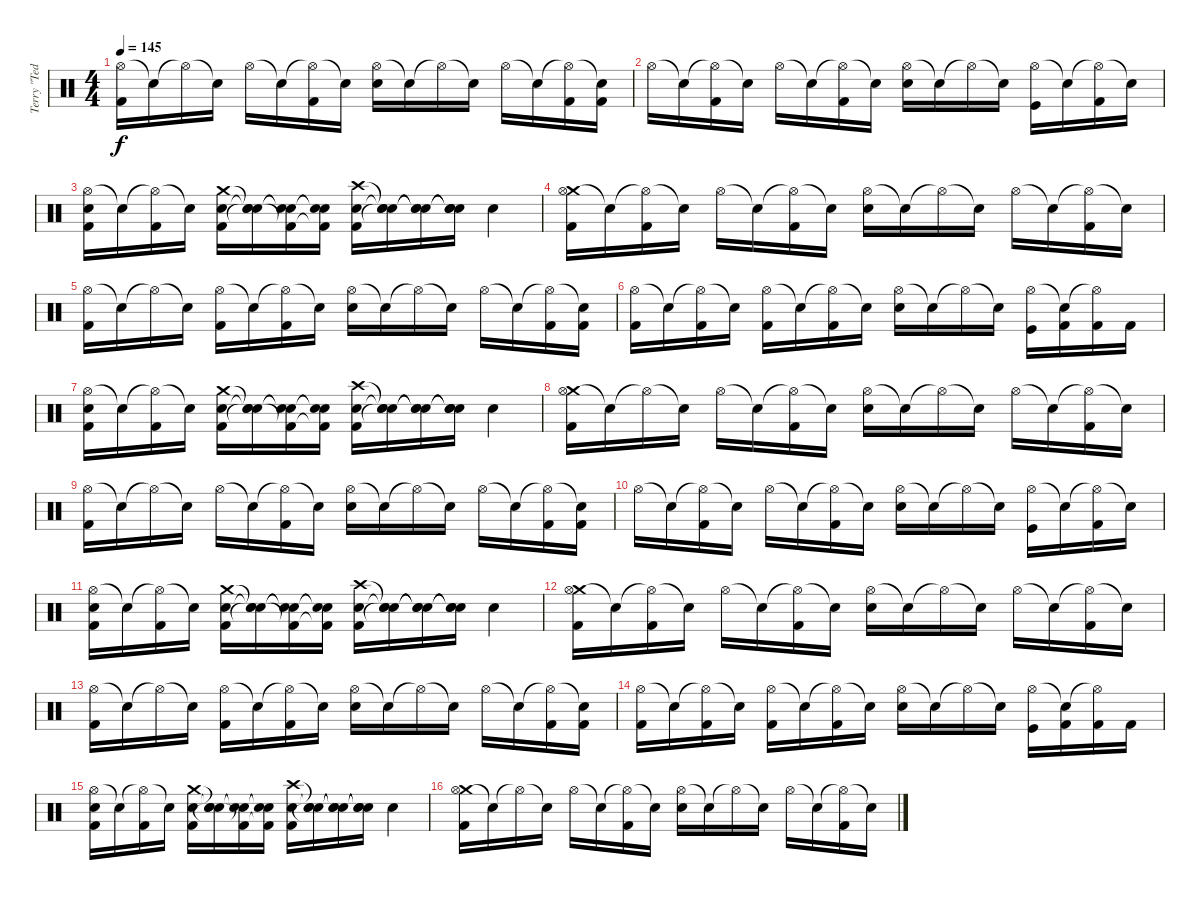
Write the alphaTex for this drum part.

\track ("Terry \"Ted\" Bozzio" "Terry \"Ted") {instrument percussion}
\staff {score}
\articulation defaults
\ts (4 4)
\tempo 145
\clef neutral
\ks c
("Hi-Hat (open)" "Kick (hit) 2").16{dy f beam merge} "Snare (hit)"{t}.16 "Hi-Hat (open)"{t}.16 "Snare (hit)"{t}.16 "Hi-Hat (open)".16 "Snare (hit)"{t}.16{beam merge} ("Hi-Hat (open)"{t} "Kick (hit) 2").16{beam merge} "Snare (hit)"{t}.16 ("Hi-Hat (open)" "Electric Snare (hit)").16 "Snare (hit)"{t}.16 "Hi-Hat (open)"{t}.16 "Snare (hit)"{t}.16 "Hi-Hat (open)".16 "Snare (hit)"{t}.16 ("Hi-Hat (open)"{t} "Kick (hit) 2").16 ("Snare (hit)"{t} "Kick (hit) 2").16 |
"Hi-Hat (open)".16{beam merge} "Snare (hit)"{t}.16 ("Hi-Hat (open)"{t} "Kick (hit) 2").16 "Snare (hit)"{t}.16 "Hi-Hat (open)".16 "Snare (hit)"{t}.16{beam merge} ("Hi-Hat (open)"{t} "Kick (hit) 2").16{beam merge} "Snare (hit)"{t}.16 ("Hi-Hat (open)" "Electric Snare (hit)").16 "Snare (hit)"{t}.16 "Hi-Hat (open)"{t}.16 "Snare (hit)"{t}.16 ("Hi-Hat (open)" "Kick (hit)").16 "Snare (hit)"{t}.16 ("Hi-Hat (open)"{t} "Kick (hit) 2").16{beam merge} "Snare (hit)"{t}.16 |
("Hi-Hat (open)" "Electric Snare (hit)" "Kick (hit) 2").16{beam merge} "Snare (hit)"{t}.16 ("Hi-Hat (open)"{t} "Kick (hit) 2").16 "Snare (hit)"{t}.16 ("Crash medium (hit)" "Electric Snare (hit)" "Kick (hit) 2").16 ("Snare (hit)"{t} "Snare (hit)"{t} "Snare (hit)"{t}).16{beam merge} ("Snare (hit)"{t} "Snare (hit)"{t} "Kick (hit) 2"{t}).16{beam merge} ("Snare (hit)"{t} "Snare (hit)"{t} "Kick (hit) 2"{t}).16 ("Crash high (hit)" "Electric Snare (hit)" "Kick (hit) 2").16 ("Snare (hit)"{t} "Snare (hit)"{t} "Snare (hit)"{t}).16 ("Snare (hit)"{t} "Snare (hit)"{t} "Snare (hit)"{t}).16 ("Snare (hit)"{t} "Snare (hit)"{t} "Snare (hit)"{t}).16 "Electric Snare (hit)".4 |
("Crash medium (hit)" "Hi-Hat (open)" "Kick (hit) 2").16{beam merge} "Snare (hit)"{t}.16 ("Hi-Hat (open)"{t} "Kick (hit) 2").16 "Snare (hit)"{t}.16 "Hi-Hat (open)".16 "Snare (hit)"{t}.16{beam merge} ("Hi-Hat (open)"{t} "Kick (hit) 2").16{beam merge} "Snare (hit)"{t}.16 ("Hi-Hat (open)" "Electric Snare (hit)").16 "Snare (hit)"{t}.16 "Hi-Hat (open)"{t}.16 "Snare (hit)"{t}.16 "Hi-Hat (open)".16 "Snare (hit)"{t}.16 ("Hi-Hat (open)"{t} "Kick (hit) 2").16 "Snare (hit)"{t}.16 |
("Hi-Hat (open)" "Kick (hit) 2").16{beam merge} "Snare (hit)"{t}.16 "Hi-Hat (open)"{t}.16 "Snare (hit)"{t}.16 ("Hi-Hat (open)" "Kick (hit) 2").16 "Snare (hit)"{t}.16{beam merge} ("Hi-Hat (open)"{t} "Kick (hit) 2").16{beam merge} "Snare (hit)"{t}.16 ("Hi-Hat (open)" "Electric Snare (hit)").16 "Snare (hit)"{t}.16 "Hi-Hat (open)"{t}.16 "Snare (hit)"{t}.16 "Hi-Hat (open)".16 "Snare (hit)"{t}.16 ("Hi-Hat (open)"{t} "Kick (hit) 2").16 ("Snare (hit)"{t} "Kick (hit) 2").16 |
("Hi-Hat (open)" "Kick (hit) 2").16{beam merge} "Snare (hit)"{t}.16 ("Hi-Hat (open)"{t} "Kick (hit) 2").16 "Snare (hit)"{t}.16 ("Hi-Hat (open)" "Kick (hit) 2").16 "Snare (hit)"{t}.16{beam merge} ("Hi-Hat (open)"{t} "Kick (hit) 2").16{beam merge} "Snare (hit)"{t}.16 ("Hi-Hat (open)" "Electric Snare (hit)").16 "Snare (hit)"{t}.16 "Hi-Hat (open)"{t}.16 "Snare (hit)"{t}.16 ("Hi-Hat (open)" "Kick (hit)").16 ("Snare (hit)"{t} "Kick (hit) 2").16 ("Hi-Hat (open)"{t} "Kick (hit) 2").16{beam merge} "Kick (hit) 2".16 |
("Hi-Hat (open)" "Electric Snare (hit)" "Kick (hit) 2").16{beam merge} "Snare (hit)"{t}.16 ("Hi-Hat (open)"{t} "Kick (hit) 2").16 "Snare (hit)"{t}.16 ("Crash medium (hit)" "Electric Snare (hit)" "Kick (hit) 2").16 ("Snare (hit)"{t} "Snare (hit)"{t} "Snare (hit)"{t}).16{beam merge} ("Snare (hit)"{t} "Snare (hit)"{t} "Kick (hit) 2"{t}).16{beam merge} ("Snare (hit)"{t} "Snare (hit)"{t} "Kick (hit) 2"{t}).16 ("Crash high (hit)" "Electric Snare (hit)" "Kick (hit) 2").16 ("Snare (hit)"{t} "Snare (hit)"{t} "Snare (hit)"{t}).16 ("Snare (hit)"{t} "Snare (hit)"{t} "Snare (hit)"{t}).16 ("Snare (hit)"{t} "Snare (hit)"{t} "Snare (hit)"{t}).16 "Electric Snare (hit)".4 |
("Crash medium (hit)" "Hi-Hat (open)" "Kick (hit) 2").16{beam merge} "Snare (hit)"{t}.16 "Hi-Hat (open)"{t}.16 "Snare (hit)"{t}.16 "Hi-Hat (open)".16 "Snare (hit)"{t}.16{beam merge} ("Hi-Hat (open)"{t} "Kick (hit) 2").16{beam merge} "Snare (hit)"{t}.16 ("Hi-Hat (open)" "Electric Snare (hit)").16 "Snare (hit)"{t}.16 "Hi-Hat (open)"{t}.16 "Snare (hit)"{t}.16 "Hi-Hat (open)".16 "Snare (hit)"{t}.16 ("Hi-Hat (open)"{t} "Kick (hit) 2").16 "Snare (hit)"{t}.16 |
("Hi-Hat (open)" "Kick (hit) 2").16{beam merge} "Snare (hit)"{t}.16 "Hi-Hat (open)"{t}.16 "Snare (hit)"{t}.16 "Hi-Hat (open)".16 "Snare (hit)"{t}.16{beam merge} ("Hi-Hat (open)"{t} "Kick (hit) 2").16{beam merge} "Snare (hit)"{t}.16 ("Hi-Hat (open)" "Electric Snare (hit)").16 "Snare (hit)"{t}.16 "Hi-Hat (open)"{t}.16 "Snare (hit)"{t}.16 "Hi-Hat (open)".16 "Snare (hit)"{t}.16 ("Hi-Hat (open)"{t} "Kick (hit) 2").16 ("Snare (hit)"{t} "Kick (hit) 2").16 |
"Hi-Hat (open)".16{beam merge} "Snare (hit)"{t}.16 ("Hi-Hat (open)"{t} "Kick (hit) 2").16 "Snare (hit)"{t}.16 "Hi-Hat (open)".16 "Snare (hit)"{t}.16{beam merge} ("Hi-Hat (open)"{t} "Kick (hit) 2").16{beam merge} "Snare (hit)"{t}.16 ("Hi-Hat (open)" "Electric Snare (hit)").16 "Snare (hit)"{t}.16 "Hi-Hat (open)"{t}.16 "Snare (hit)"{t}.16 ("Hi-Hat (open)" "Kick (hit)").16 "Snare (hit)"{t}.16 ("Hi-Hat (open)"{t} "Kick (hit) 2").16{beam merge} "Snare (hit)"{t}.16 |
("Hi-Hat (open)" "Electric Snare (hit)" "Kick (hit) 2").16{beam merge} "Snare (hit)"{t}.16 ("Hi-Hat (open)"{t} "Kick (hit) 2").16 "Snare (hit)"{t}.16 ("Crash medium (hit)" "Electric Snare (hit)" "Kick (hit) 2").16 ("Snare (hit)"{t} "Snare (hit)"{t} "Snare (hit)"{t}).16{beam merge} ("Snare (hit)"{t} "Snare (hit)"{t} "Kick (hit) 2"{t}).16{beam merge} ("Snare (hit)"{t} "Snare (hit)"{t} "Kick (hit) 2"{t}).16 ("Crash high (hit)" "Electric Snare (hit)" "Kick (hit) 2").16 ("Snare (hit)"{t} "Snare (hit)"{t} "Snare (hit)"{t}).16 ("Snare (hit)"{t} "Snare (hit)"{t} "Snare (hit)"{t}).16 ("Snare (hit)"{t} "Snare (hit)"{t} "Snare (hit)"{t}).16 "Electric Snare (hit)".4 |
("Crash medium (hit)" "Hi-Hat (open)" "Kick (hit) 2").16{beam merge} "Snare (hit)"{t}.16 ("Hi-Hat (open)"{t} "Kick (hit) 2").16 "Snare (hit)"{t}.16 "Hi-Hat (open)".16 "Snare (hit)"{t}.16{beam merge} ("Hi-Hat (open)"{t} "Kick (hit) 2").16{beam merge} "Snare (hit)"{t}.16 ("Hi-Hat (open)" "Electric Snare (hit)").16 "Snare (hit)"{t}.16 "Hi-Hat (open)"{t}.16 "Snare (hit)"{t}.16 "Hi-Hat (open)".16 "Snare (hit)"{t}.16 ("Hi-Hat (open)"{t} "Kick (hit) 2").16 "Snare (hit)"{t}.16 |
("Hi-Hat (open)" "Kick (hit) 2").16{beam merge} "Snare (hit)"{t}.16 "Hi-Hat (open)"{t}.16 "Snare (hit)"{t}.16 ("Hi-Hat (open)" "Kick (hit) 2").16 "Snare (hit)"{t}.16{beam merge} ("Hi-Hat (open)"{t} "Kick (hit) 2").16{beam merge} "Snare (hit)"{t}.16 ("Hi-Hat (open)" "Electric Snare (hit)").16 "Snare (hit)"{t}.16 "Hi-Hat (open)"{t}.16 "Snare (hit)"{t}.16 "Hi-Hat (open)".16 "Snare (hit)"{t}.16 ("Hi-Hat (open)"{t} "Kick (hit) 2").16 ("Snare (hit)"{t} "Kick (hit) 2").16 |
("Hi-Hat (open)" "Kick (hit) 2").16{beam merge} "Snare (hit)"{t}.16 ("Hi-Hat (open)"{t} "Kick (hit) 2").16 "Snare (hit)"{t}.16 ("Hi-Hat (open)" "Kick (hit) 2").16 "Snare (hit)"{t}.16{beam merge} ("Hi-Hat (open)"{t} "Kick (hit) 2").16{beam merge} "Snare (hit)"{t}.16 ("Hi-Hat (open)" "Electric Snare (hit)").16 "Snare (hit)"{t}.16 "Hi-Hat (open)"{t}.16 "Snare (hit)"{t}.16 ("Hi-Hat (open)" "Kick (hit)").16 ("Snare (hit)"{t} "Kick (hit) 2").16 ("Hi-Hat (open)"{t} "Kick (hit) 2").16{beam merge} "Kick (hit) 2".16 |
("Hi-Hat (open)" "Electric Snare (hit)" "Kick (hit) 2").16{beam merge} "Snare (hit)"{t}.16 ("Hi-Hat (open)"{t} "Kick (hit) 2").16 "Snare (hit)"{t}.16 ("Crash medium (hit)" "Electric Snare (hit)" "Kick (hit) 2").16 ("Snare (hit)"{t} "Snare (hit)"{t} "Snare (hit)"{t}).16{beam merge} ("Snare (hit)"{t} "Snare (hit)"{t} "Kick (hit) 2"{t}).16{beam merge} ("Snare (hit)"{t} "Snare (hit)"{t} "Kick (hit) 2"{t}).16 ("Crash high (hit)" "Electric Snare (hit)" "Kick (hit) 2").16 ("Snare (hit)"{t} "Snare (hit)"{t} "Snare (hit)"{t}).16 ("Snare (hit)"{t} "Snare (hit)"{t} "Snare (hit)"{t}).16 ("Snare (hit)"{t} "Snare (hit)"{t} "Snare (hit)"{t}).16 "Electric Snare (hit)".4 |
("Crash medium (hit)" "Hi-Hat (open)" "Kick (hit) 2").16{beam merge} "Snare (hit)"{t}.16 "Hi-Hat (open)"{t}.16 "Snare (hit)"{t}.16 "Hi-Hat (open)".16 "Snare (hit)"{t}.16{beam merge} ("Hi-Hat (open)"{t} "Kick (hit) 2").16{beam merge} "Snare (hit)"{t}.16 ("Hi-Hat (open)" "Electric Snare (hit)").16 "Snare (hit)"{t}.16 "Hi-Hat (open)"{t}.16 "Snare (hit)"{t}.16 "Hi-Hat (open)".16 "Snare (hit)"{t}.16 ("Hi-Hat (open)"{t} "Kick (hit) 2").16 "Snare (hit)"{t}.16
